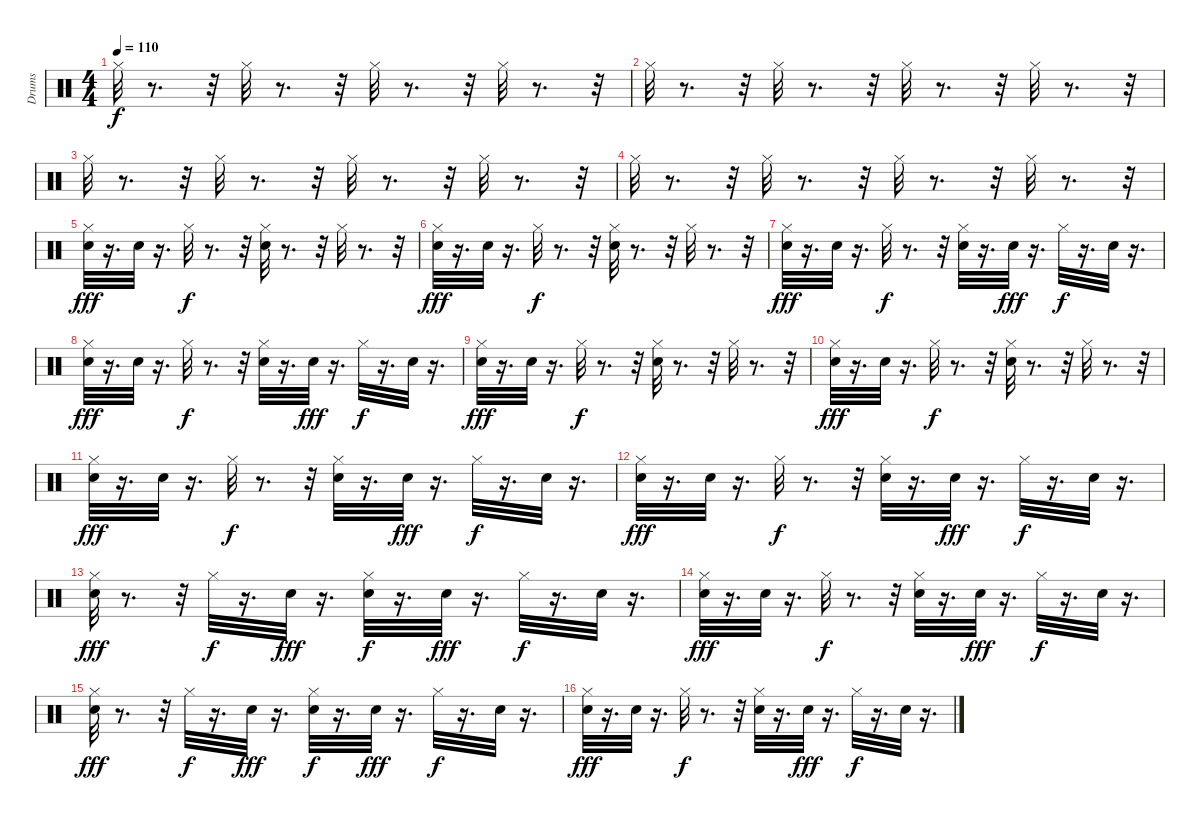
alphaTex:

\track ("Drums" "Drums") {instrument percussion}
\staff {score}
\articulation defaults
\ts (4 4)
\tempo 110
\clef neutral
\ks c "Hi-Hat (closed)".32{dy f}
r.8{d} r.32 "Hi-Hat (closed)".32 r.8{d} r.32 "Hi-Hat (closed)".32 r.8{d} r.32 "Hi-Hat (closed)".32 r.8{d} r.32 |
"Hi-Hat (closed)".32 r.8{d} r.32 "Hi-Hat (closed)".32 r.8{d} r.32 "Hi-Hat (closed)".32 r.8{d} r.32 "Hi-Hat (closed)".32 r.8{d} r.32 |
"Hi-Hat (closed)".32 r.8{d} r.32 "Hi-Hat (closed)".32 r.8{d} r.32 "Hi-Hat (closed)".32 r.8{d} r.32 "Hi-Hat (closed)".32 r.8{d} r.32 |
"Hi-Hat (closed)".32 r.8{d} r.32 "Hi-Hat (closed)".32 r.8{d} r.32 "Hi-Hat (closed)".32 r.8{d} r.32 "Hi-Hat (closed)".32 r.8{d} r.32 |
("Snare (hit)" "Hi-Hat (closed)").32{dy fff} r.16{d} "Snare (hit)".32 r.16{d} "Hi-Hat (closed)".32{dy f} r.8{d} r.32 ("Snare (hit) 2" "Hi-Hat (closed)").32 r.8{d} r.32 "Hi-Hat (closed)".32 r.8{d} r.32 |
("Snare (hit)" "Hi-Hat (closed)").32{dy fff} r.16{d} "Snare (hit)".32 r.16{d} "Hi-Hat (closed)".32{dy f} r.8{d} r.32 ("Snare (hit) 2" "Hi-Hat (closed)").32 r.8{d} r.32 "Hi-Hat (closed)".32 r.8{d} r.32 |
("Snare (hit)" "Hi-Hat (closed)").32{dy fff} r.16{d} "Snare (hit)".32 r.16{d} "Hi-Hat (closed)".32{dy f} r.8{d} r.32 ("Snare (hit) 2" "Hi-Hat (closed)").32 r.16{d} "Snare (hit)".32{dy fff} r.16{d} "Hi-Hat (closed)".32{dy f} r.16{d} "Snare (hit) 2".32 r.16{d} |
("Snare (hit)" "Hi-Hat (closed)").32{dy fff} r.16{d} "Snare (hit)".32 r.16{d} "Hi-Hat (closed)".32{dy f} r.8{d} r.32 ("Snare (hit) 2" "Hi-Hat (closed)").32 r.16{d} "Snare (hit)".32{dy fff} r.16{d} "Hi-Hat (closed)".32{dy f} r.16{d} "Snare (hit) 2".32 r.16{d} |
("Snare (hit)" "Hi-Hat (closed)").32{dy fff} r.16{d} "Snare (hit)".32 r.16{d} "Hi-Hat (closed)".32{dy f} r.8{d} r.32 ("Snare (hit) 2" "Hi-Hat (closed)").32 r.8{d} r.32 "Hi-Hat (closed)".32 r.8{d} r.32 |
("Snare (hit)" "Hi-Hat (closed)").32{dy fff} r.16{d} "Snare (hit)".32 r.16{d} "Hi-Hat (closed)".32{dy f} r.8{d} r.32 ("Snare (hit) 2" "Hi-Hat (closed)").32 r.8{d} r.32 "Hi-Hat (closed)".32 r.8{d} r.32 |
("Snare (hit)" "Hi-Hat (closed)").32{dy fff} r.16{d} "Snare (hit)".32 r.16{d} "Hi-Hat (closed)".32{dy f} r.8{d} r.32 ("Snare (hit) 2" "Hi-Hat (closed)").32 r.16{d} "Snare (hit)".32{dy fff} r.16{d} "Hi-Hat (closed)".32{dy f} r.16{d} "Snare (hit) 2".32 r.16{d} |
("Snare (hit)" "Hi-Hat (closed)").32{dy fff} r.16{d} "Snare (hit)".32 r.16{d} "Hi-Hat (closed)".32{dy f} r.8{d} r.32 ("Snare (hit) 2" "Hi-Hat (closed)").32 r.16{d} "Snare (hit)".32{dy fff} r.16{d} "Hi-Hat (closed)".32{dy f} r.16{d} "Snare (hit) 2".32 r.16{d} |
("Snare (hit)" "Hi-Hat (closed)").32{dy fff} r.8{d} r.32 "Hi-Hat (closed)".32{dy f} r.16{d} "Snare (hit)".32{dy fff} r.16{d} ("Snare (hit) 2" "Hi-Hat (closed)").32{dy f} r.16{d} "Snare (hit)".32{dy fff} r.16{d} "Hi-Hat (closed)".32{dy f} r.16{d} "Snare (hit) 2".32 r.16{d} |
("Snare (hit)" "Hi-Hat (closed)").32{dy fff} r.16{d} "Snare (hit)".32 r.16{d} "Hi-Hat (closed)".32{dy f} r.8{d} r.32 ("Snare (hit) 2" "Hi-Hat (closed)").32 r.16{d} "Snare (hit)".32{dy fff} r.16{d} "Hi-Hat (closed)".32{dy f} r.16{d} "Snare (hit) 2".32 r.16{d} |
("Snare (hit)" "Hi-Hat (closed)").32{dy fff} r.8{d} r.32 "Hi-Hat (closed)".32{dy f} r.16{d} "Snare (hit)".32{dy fff} r.16{d} ("Snare (hit) 2" "Hi-Hat (closed)").32{dy f} r.16{d} "Snare (hit)".32{dy fff} r.16{d} "Hi-Hat (closed)".32{dy f} r.16{d} "Snare (hit) 2".32 r.16{d} |
("Snare (hit)" "Hi-Hat (closed)").32{dy fff} r.16{d} "Snare (hit)".32 r.16{d} "Hi-Hat (closed)".32{dy f} r.8{d} r.32 ("Snare (hit) 2" "Hi-Hat (closed)").32 r.16{d} "Snare (hit)".32{dy fff} r.16{d} "Hi-Hat (closed)".32{dy f} r.16{d} "Snare (hit) 2".32 r.16{d}
